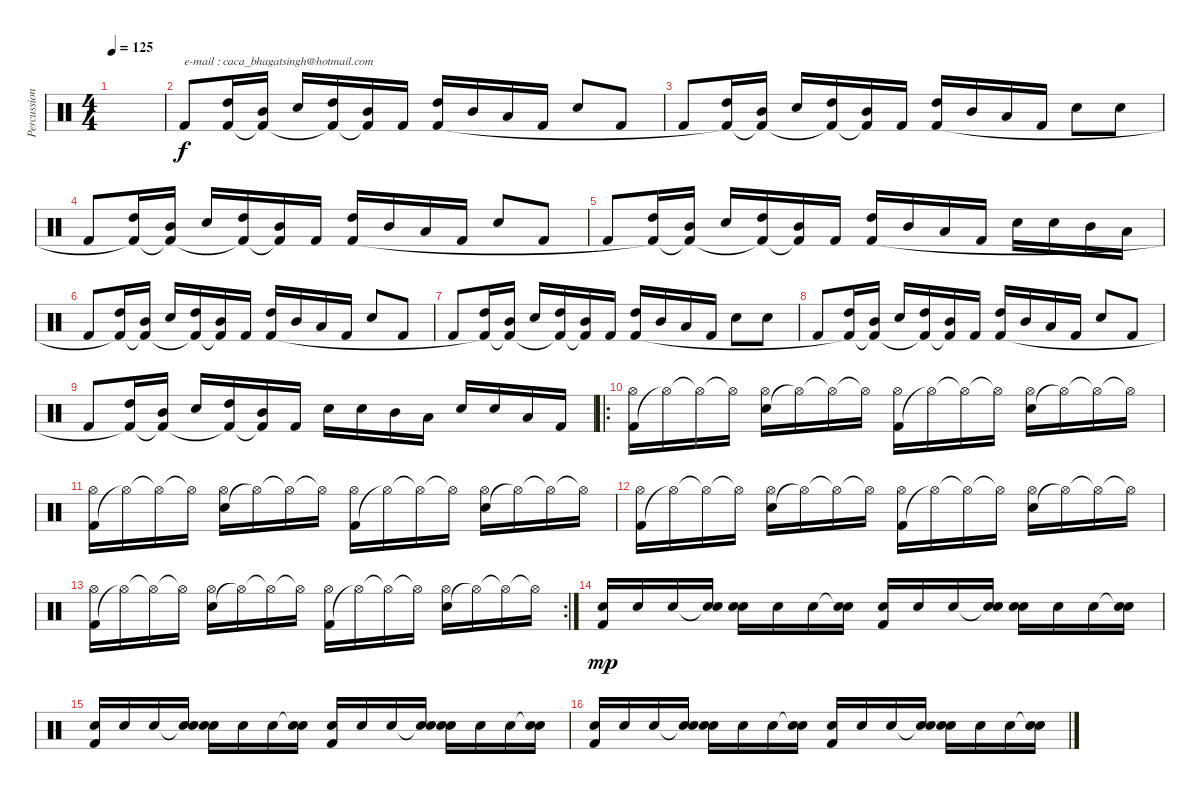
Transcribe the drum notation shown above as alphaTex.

\track ("Percussions" "Percussion") {instrument percussion}
\staff {score}
\articulation defaults
\ts (4 4)
\tempo 125
\clef neutral
\ks c
|
"Kick (hit) 2".8{txt "e-mail : caca_bhagatsingh@hotmail.com"} ("High Tom (hit)" "Kick (hit) 2").16 ("Mid Tom (hit)" "Kick (hit) 2"{t}).16 "Electric Snare (hit)".16 ("High Tom (hit)" "Kick (hit) 2"{t}).16 ("Mid Tom (hit)" "Kick (hit) 2"{t}).16 "Kick (hit) 2".16 ("High Tom (hit)" "Kick (hit) 2").16 "Mid Tom (hit)".16 "Low Tom (hit)".16 "Kick (hit) 2".16 "Electric Snare (hit)".8 "Kick (hit) 2".8 |
"Kick (hit) 2".8 ("High Tom (hit)" "Kick (hit) 2"{t}).16 ("Mid Tom (hit)" "Kick (hit) 2"{t}).16 "Electric Snare (hit)".16 ("High Tom (hit)" "Kick (hit) 2"{t}).16 ("Mid Tom (hit)" "Kick (hit) 2"{t}).16 "Kick (hit) 2".16 ("High Tom (hit)" "Kick (hit) 2").16 "Mid Tom (hit)".16 "Low Tom (hit)".16 "Kick (hit) 2".16 "Electric Snare (hit)".8 "Electric Snare (hit)".8 |
"Kick (hit) 2".8 ("High Tom (hit)" "Kick (hit) 2"{t}).16 ("Mid Tom (hit)" "Kick (hit) 2"{t}).16 "Electric Snare (hit)".16 ("High Tom (hit)" "Kick (hit) 2"{t}).16 ("Mid Tom (hit)" "Kick (hit) 2"{t}).16 "Kick (hit) 2".16 ("High Tom (hit)" "Kick (hit) 2").16 "Mid Tom (hit)".16 "Low Tom (hit)".16 "Kick (hit) 2".16 "Electric Snare (hit)".8 "Kick (hit) 2".8 |
"Kick (hit) 2".8 ("High Tom (hit)" "Kick (hit) 2"{t}).16 ("Mid Tom (hit)" "Kick (hit) 2"{t}).16 "Electric Snare (hit)".16 ("High Tom (hit)" "Kick (hit) 2"{t}).16 ("Mid Tom (hit)" "Kick (hit) 2"{t}).16 "Kick (hit) 2".16 ("High Tom (hit)" "Kick (hit) 2").16 "Mid Tom (hit)".16 "Low Tom (hit)".16 "Kick (hit) 2".16 "Electric Snare (hit)".16 "Electric Snare (hit)".16 "Mid Tom (hit)".16 "Low Tom (hit)".16 |
"Kick (hit) 2".8 ("High Tom (hit)" "Kick (hit) 2"{t}).16 ("Mid Tom (hit)" "Kick (hit) 2"{t}).16 "Electric Snare (hit)".16 ("High Tom (hit)" "Kick (hit) 2"{t}).16 ("Mid Tom (hit)" "Kick (hit) 2"{t}).16 "Kick (hit) 2".16 ("High Tom (hit)" "Kick (hit) 2").16 "Mid Tom (hit)".16 "Low Tom (hit)".16 "Kick (hit) 2".16 "Electric Snare (hit)".8 "Kick (hit) 2".8 |
"Kick (hit) 2".8 ("High Tom (hit)" "Kick (hit) 2"{t}).16 ("Mid Tom (hit)" "Kick (hit) 2"{t}).16 "Electric Snare (hit)".16 ("High Tom (hit)" "Kick (hit) 2"{t}).16 ("Mid Tom (hit)" "Kick (hit) 2"{t}).16 "Kick (hit) 2".16 ("High Tom (hit)" "Kick (hit) 2").16 "Mid Tom (hit)".16 "Low Tom (hit)".16 "Kick (hit) 2".16 "Electric Snare (hit)".8 "Electric Snare (hit)".8 |
"Kick (hit) 2".8 ("High Tom (hit)" "Kick (hit) 2"{t}).16 ("Mid Tom (hit)" "Kick (hit) 2"{t}).16 "Electric Snare (hit)".16 ("High Tom (hit)" "Kick (hit) 2"{t}).16 ("Mid Tom (hit)" "Kick (hit) 2"{t}).16 "Kick (hit) 2".16 ("High Tom (hit)" "Kick (hit) 2").16 "Mid Tom (hit)".16 "Low Tom (hit)".16 "Kick (hit) 2".16 "Electric Snare (hit)".8 "Kick (hit) 2".8 |
"Kick (hit) 2".8 ("High Tom (hit)" "Kick (hit) 2"{t}).16 ("Mid Tom (hit)" "Kick (hit) 2"{t}).16 "Electric Snare (hit)".16 ("High Tom (hit)" "Kick (hit) 2"{t}).16 ("Mid Tom (hit)" "Kick (hit) 2"{t}).16 "Kick (hit) 2".16 "Electric Snare (hit)".16 "Electric Snare (hit)".16 "Mid Tom (hit)".16 "Low Tom (hit)".16 "Electric Snare (hit)".16 "Electric Snare (hit)".16 "Low Tom (hit)".16 "Kick (hit) 2".16 |
\ro
("Kick (hit) 2" "Hi-Hat (open)").16 "Hi-Hat (open)"{t}.16 "Hi-Hat (open)"{t}.16 "Hi-Hat (open)"{t}.16 ("Electric Snare (hit)" "Hi-Hat (open)").16 "Hi-Hat (open)"{t}.16 "Hi-Hat (open)"{t}.16 "Hi-Hat (open)"{t}.16 ("Kick (hit) 2" "Hi-Hat (open)").16 "Hi-Hat (open)"{t}.16 "Hi-Hat (open)"{t}.16 "Hi-Hat (open)"{t}.16 ("Electric Snare (hit)" "Hi-Hat (open)").16 "Hi-Hat (open)"{t}.16 "Hi-Hat (open)"{t}.16 "Hi-Hat (open)"{t}.16 |
("Kick (hit) 2" "Hi-Hat (open)").16 "Hi-Hat (open)"{t}.16 "Hi-Hat (open)"{t}.16 "Hi-Hat (open)"{t}.16 ("Electric Snare (hit)" "Hi-Hat (open)").16 "Hi-Hat (open)"{t}.16 "Hi-Hat (open)"{t}.16 "Hi-Hat (open)"{t}.16 ("Kick (hit) 2" "Hi-Hat (open)").16 "Hi-Hat (open)"{t}.16 "Hi-Hat (open)"{t}.16 "Hi-Hat (open)"{t}.16 ("Electric Snare (hit)" "Hi-Hat (open)").16 "Hi-Hat (open)"{t}.16 "Hi-Hat (open)"{t}.16 "Hi-Hat (open)"{t}.16 |
("Kick (hit) 2" "Hi-Hat (open)").16 "Hi-Hat (open)"{t}.16 "Hi-Hat (open)"{t}.16 "Hi-Hat (open)"{t}.16 ("Electric Snare (hit)" "Hi-Hat (open)").16 "Hi-Hat (open)"{t}.16 "Hi-Hat (open)"{t}.16 "Hi-Hat (open)"{t}.16 ("Kick (hit) 2" "Hi-Hat (open)").16 "Hi-Hat (open)"{t}.16 "Hi-Hat (open)"{t}.16 "Hi-Hat (open)"{t}.16 ("Electric Snare (hit)" "Hi-Hat (open)").16 "Hi-Hat (open)"{t}.16 "Hi-Hat (open)"{t}.16 "Hi-Hat (open)"{t}.16 |
\rc 2
("Kick (hit) 2" "Hi-Hat (open)").16 "Hi-Hat (open)"{t}.16 "Hi-Hat (open)"{t}.16 "Hi-Hat (open)"{t}.16 ("Electric Snare (hit)" "Hi-Hat (open)").16 "Hi-Hat (open)"{t}.16 "Hi-Hat (open)"{t}.16 "Hi-Hat (open)"{t}.16 ("Kick (hit) 2" "Hi-Hat (open)").16 "Hi-Hat (open)"{t}.16 "Hi-Hat (open)"{t}.16 "Hi-Hat (open)"{t}.16 ("Electric Snare (hit)" "Hi-Hat (open)").16 "Hi-Hat (open)"{t}.16 "Hi-Hat (open)"{t}.16 "Hi-Hat (open)"{t}.16 |
("Kick (hit) 2" "Electric Snare (hit)").16{dy mp} "Electric Snare (hit)".16 "Electric Snare (hit)".16 ("Snare (hit)"{t} "Electric Snare (hit)").16 ("Electric Snare (hit)" "Electric Snare (hit)").16 "Electric Snare (hit)".16 "Electric Snare (hit)".16 ("Snare (hit)"{t} "Electric Snare (hit)").16 ("Kick (hit) 2" "Electric Snare (hit)").16 "Electric Snare (hit)".16 "Electric Snare (hit)".16 ("Snare (hit)"{t} "Electric Snare (hit)").16 ("Electric Snare (hit)" "Electric Snare (hit)").16 "Electric Snare (hit)".16 "Electric Snare (hit)".16 ("Snare (hit)"{t} "Electric Snare (hit)").16 |
("Kick (hit) 2" "Electric Snare (hit)").16 "Electric Snare (hit)".16 "Electric Snare (hit)".16 ("Snare (hit)"{t} "Electric Snare (hit)").16 ("Electric Snare (hit)" "Electric Snare (hit)").16 "Electric Snare (hit)".16 "Electric Snare (hit)".16 ("Snare (hit)"{t} "Electric Snare (hit)").16 ("Kick (hit) 2" "Electric Snare (hit)").16 "Electric Snare (hit)".16 "Electric Snare (hit)".16 ("Snare (hit)"{t} "Electric Snare (hit)").16 ("Electric Snare (hit)" "Electric Snare (hit)").16 "Electric Snare (hit)".16 "Electric Snare (hit)".16 ("Snare (hit)"{t} "Electric Snare (hit)").16 |
("Kick (hit) 2" "Electric Snare (hit)").16 "Electric Snare (hit)".16 "Electric Snare (hit)".16 ("Snare (hit)"{t} "Electric Snare (hit)").16 ("Electric Snare (hit)" "Electric Snare (hit)").16 "Electric Snare (hit)".16 "Electric Snare (hit)".16 ("Snare (hit)"{t} "Electric Snare (hit)").16 ("Kick (hit) 2" "Electric Snare (hit)").16 "Electric Snare (hit)".16 "Electric Snare (hit)".16 ("Snare (hit)"{t} "Electric Snare (hit)").16 ("Electric Snare (hit)" "Electric Snare (hit)").16 "Electric Snare (hit)".16 "Electric Snare (hit)".16 ("Snare (hit)"{t} "Electric Snare (hit)").16
